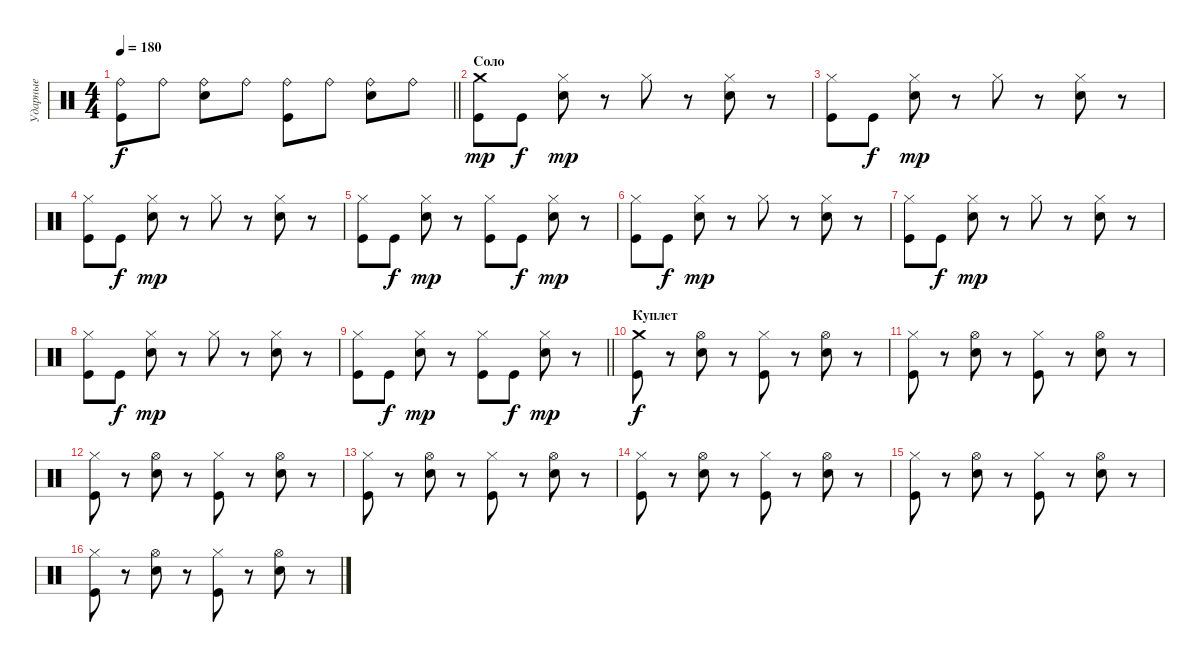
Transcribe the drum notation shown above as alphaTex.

\track ("Ударные" "Ударные") {instrument percussion}
\staff {score}
\articulation defaults
\ts (4 4)
\tempo 180
\clef neutral
\barLineRight lightlight
\ks c
("Ride (bell)" "Kick (hit)").8{dy f} "Ride (bell)".8 ("Ride (bell)" "Electric Snare (hit)").8 "Ride (bell)".8 ("Ride (bell)" "Kick (hit)").8 "Ride (bell)".8 ("Ride (bell)" "Electric Snare (hit)").8 "Ride (bell)".8 |
\section ("" "Соло")
("Crash medium (hit)" "Kick (hit)").8{dy mp} "Kick (hit)".8{dy f} ("Hi-Hat (closed)" "Electric Snare (hit)").8{dy mp} r.8 "Hi-Hat (closed)".8 r.8 ("Hi-Hat (closed)" "Electric Snare (hit)").8 r.8 |
("Hi-Hat (closed)" "Kick (hit)").8 "Kick (hit)".8{dy f} ("Hi-Hat (closed)" "Electric Snare (hit)").8{dy mp} r.8 "Hi-Hat (closed)".8 r.8 ("Hi-Hat (closed)" "Electric Snare (hit)").8 r.8 |
("Hi-Hat (closed)" "Kick (hit)").8 "Kick (hit)".8{dy f} ("Hi-Hat (closed)" "Electric Snare (hit)").8{dy mp} r.8 "Hi-Hat (closed)".8 r.8 ("Hi-Hat (closed)" "Electric Snare (hit)").8 r.8 |
("Hi-Hat (closed)" "Kick (hit)").8 "Kick (hit)".8{dy f} ("Hi-Hat (closed)" "Electric Snare (hit)").8{dy mp} r.8 ("Hi-Hat (closed)" "Kick (hit)").8 "Kick (hit)".8{dy f} ("Hi-Hat (closed)" "Electric Snare (hit)").8{dy mp} r.8 |
("Hi-Hat (closed)" "Kick (hit)").8 "Kick (hit)".8{dy f} ("Hi-Hat (closed)" "Electric Snare (hit)").8{dy mp} r.8 "Hi-Hat (closed)".8 r.8 ("Hi-Hat (closed)" "Electric Snare (hit)").8 r.8 |
("Hi-Hat (closed)" "Kick (hit)").8 "Kick (hit)".8{dy f} ("Hi-Hat (closed)" "Electric Snare (hit)").8{dy mp} r.8 "Hi-Hat (closed)".8 r.8 ("Hi-Hat (closed)" "Electric Snare (hit)").8 r.8 |
("Hi-Hat (closed)" "Kick (hit)").8 "Kick (hit)".8{dy f} ("Hi-Hat (closed)" "Electric Snare (hit)").8{dy mp} r.8 "Hi-Hat (closed)".8 r.8 ("Hi-Hat (closed)" "Electric Snare (hit)").8 r.8 |
\barLineRight lightlight
("Hi-Hat (closed)" "Kick (hit)").8 "Kick (hit)".8{dy f} ("Hi-Hat (closed)" "Electric Snare (hit)").8{dy mp} r.8 ("Hi-Hat (closed)" "Kick (hit)").8 "Kick (hit)".8{dy f} ("Hi-Hat (closed)" "Electric Snare (hit)").8{dy mp} r.8 |
\section ("" "Куплет")
("Crash medium (hit)" "Kick (hit)").8{dy f} r.8 ("Hi-Hat (open)" "Electric Snare (hit)").8 r.8 ("Hi-Hat (closed)" "Kick (hit)").8 r.8 ("Hi-Hat (open)" "Electric Snare (hit)").8 r.8 |
("Hi-Hat (closed)" "Kick (hit)").8 r.8 ("Hi-Hat (open)" "Electric Snare (hit)").8 r.8 ("Hi-Hat (closed)" "Kick (hit)").8 r.8 ("Hi-Hat (open)" "Electric Snare (hit)").8 r.8 |
("Hi-Hat (closed)" "Kick (hit)").8 r.8 ("Hi-Hat (open)" "Electric Snare (hit)").8 r.8 ("Hi-Hat (closed)" "Kick (hit)").8 r.8 ("Hi-Hat (open)" "Electric Snare (hit)").8 r.8 |
("Hi-Hat (closed)" "Kick (hit)").8 r.8 ("Hi-Hat (open)" "Electric Snare (hit)").8 r.8 ("Hi-Hat (closed)" "Kick (hit)").8 r.8 ("Hi-Hat (open)" "Electric Snare (hit)").8 r.8 |
("Hi-Hat (closed)" "Kick (hit)").8 r.8 ("Hi-Hat (open)" "Electric Snare (hit)").8 r.8 ("Hi-Hat (closed)" "Kick (hit)").8 r.8 ("Hi-Hat (open)" "Electric Snare (hit)").8 r.8 |
("Hi-Hat (closed)" "Kick (hit)").8 r.8 ("Hi-Hat (open)" "Electric Snare (hit)").8 r.8 ("Hi-Hat (closed)" "Kick (hit)").8 r.8 ("Hi-Hat (open)" "Electric Snare (hit)").8 r.8 |
("Hi-Hat (closed)" "Kick (hit)").8 r.8 ("Hi-Hat (open)" "Electric Snare (hit)").8 r.8 ("Hi-Hat (closed)" "Kick (hit)").8 r.8 ("Hi-Hat (open)" "Electric Snare (hit)").8 r.8
